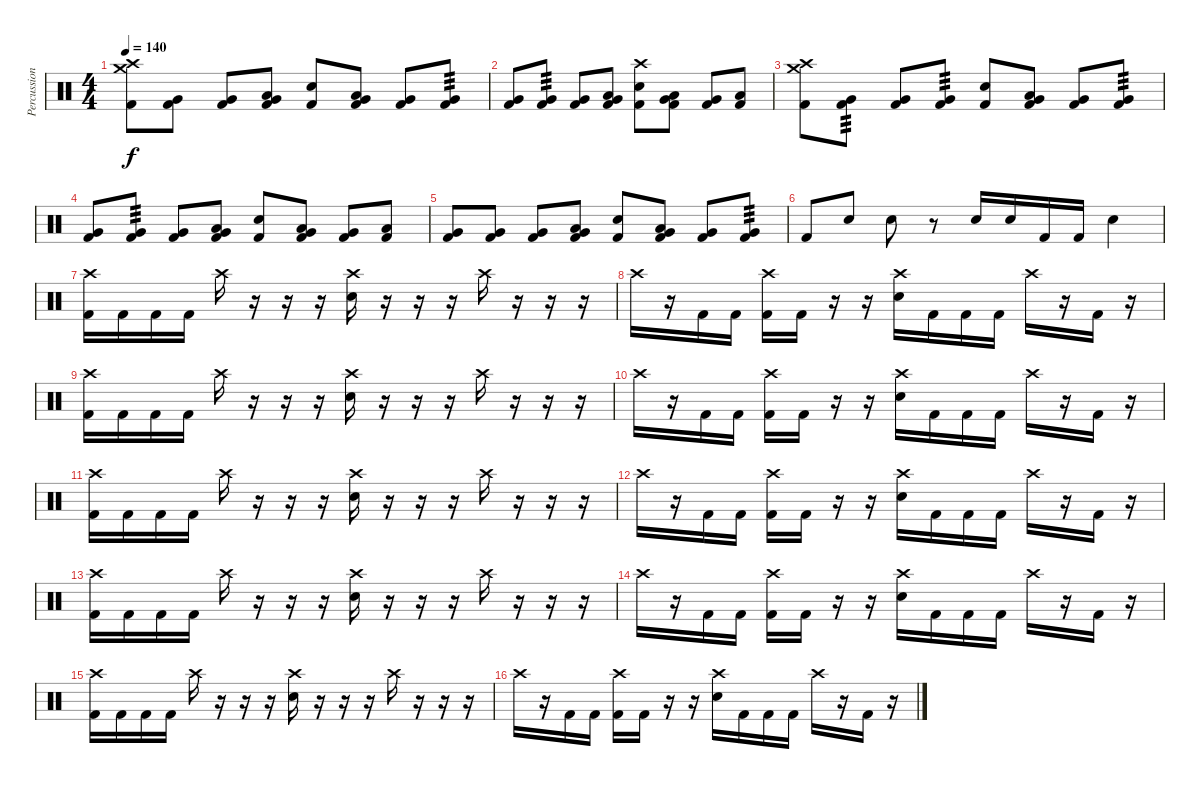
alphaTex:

\track ("Percussion" "Percussion") {instrument percussion}
\staff {score}
\articulation defaults
\ts (4 4)
\tempo 140
\clef neutral
\ks c
("Crash medium (hit)" "Crash high (hit)" "Kick (hit) 2").8{dy f} ("Very Low Tom (hit)" "Kick (hit) 2").8 ("Very Low Tom (hit)" "Kick (hit) 2").8 ("Low Tom (hit)" "Very Low Tom (hit)" "Kick (hit) 2").8 ("Electric Snare (hit)" "Kick (hit) 2").8 ("Low Tom (hit)" "Very Low Tom (hit)" "Kick (hit) 2").8 ("Very Low Tom (hit)" "Kick (hit) 2").8 ("Very Low Tom (hit)" "Kick (hit) 2").8{tp 3} |
("Very Low Tom (hit)" "Kick (hit) 2").8 ("Very Low Tom (hit)" "Kick (hit) 2").8{tp 3} ("Very Low Tom (hit)" "Kick (hit) 2").8 ("Low Tom (hit)" "Very Low Tom (hit)" "Kick (hit) 2").8 ("Crash high (hit)" "Electric Snare (hit)" "Kick (hit) 2").8 ("Low Tom (hit)" "Very Low Tom (hit)" "Kick (hit) 2").8 ("Very Low Tom (hit)" "Kick (hit) 2").8 ("Low Tom (hit)" "Kick (hit) 2").8 |
("Crash medium (hit)" "Crash high (hit)" "Kick (hit) 2").8 ("Very Low Tom (hit)" "Kick (hit) 2").8{tp 3} ("Very Low Tom (hit)" "Kick (hit) 2").8 ("Very Low Tom (hit)" "Kick (hit) 2").8{tp 3} ("Electric Snare (hit)" "Kick (hit) 2").8 ("Low Tom (hit)" "Very Low Tom (hit)" "Kick (hit) 2").8 ("Very Low Tom (hit)" "Kick (hit) 2").8 ("Very Low Tom (hit)" "Kick (hit) 2").8{tp 3} |
("Very Low Tom (hit)" "Kick (hit) 2").8 ("Very Low Tom (hit)" "Kick (hit) 2").8{tp 3} ("Very Low Tom (hit)" "Kick (hit) 2").8 ("Low Tom (hit)" "Very Low Tom (hit)" "Kick (hit) 2").8 ("Electric Snare (hit)" "Kick (hit) 2").8 ("Low Tom (hit)" "Very Low Tom (hit)" "Kick (hit) 2").8 ("Very Low Tom (hit)" "Kick (hit) 2").8 ("Low Tom (hit)" "Kick (hit) 2").8 |
("Very Low Tom (hit)" "Kick (hit) 2").8 ("Very Low Tom (hit)" "Kick (hit) 2").8 ("Very Low Tom (hit)" "Kick (hit) 2").8 ("Low Tom (hit)" "Very Low Tom (hit)" "Kick (hit) 2").8 ("Electric Snare (hit)" "Kick (hit) 2").8 ("Low Tom (hit)" "Very Low Tom (hit)" "Kick (hit) 2").8 ("Very Low Tom (hit)" "Kick (hit) 2").8 ("Very Low Tom (hit)" "Kick (hit) 2").8{tp 3} |
"Kick (hit) 2".8 "Electric Snare (hit)".8 "Electric Snare (hit)".8 r.8 "Electric Snare (hit)".16 "Electric Snare (hit)".16 "Kick (hit) 2".16 "Kick (hit) 2".16 "Electric Snare (hit)".4 |
("Crash high (hit)" "Kick (hit) 2").16 "Kick (hit) 2".16 "Kick (hit) 2".16 "Kick (hit) 2".16 "Crash high (hit)".16 r.16 r.16 r.16 ("Crash high (hit)" "Electric Snare (hit)").16 r.16 r.16 r.16 "Crash high (hit)".16 r.16 r.16 r.16 |
"Crash high (hit)".16 r.16 "Kick (hit) 2".16 "Kick (hit) 2".16 ("Crash high (hit)" "Kick (hit) 2").16 "Kick (hit) 2".16 r.16 r.16 ("Crash high (hit)" "Electric Snare (hit)").16 "Kick (hit) 2".16 "Kick (hit) 2".16 "Kick (hit) 2".16 "Crash high (hit)".16 r.16 "Kick (hit) 2".16 r.16 |
("Crash high (hit)" "Kick (hit) 2").16 "Kick (hit) 2".16 "Kick (hit) 2".16 "Kick (hit) 2".16 "Crash high (hit)".16 r.16 r.16 r.16 ("Crash high (hit)" "Electric Snare (hit)").16 r.16 r.16 r.16 "Crash high (hit)".16 r.16 r.16 r.16 |
"Crash high (hit)".16 r.16 "Kick (hit) 2".16 "Kick (hit) 2".16 ("Crash high (hit)" "Kick (hit) 2").16 "Kick (hit) 2".16 r.16 r.16 ("Crash high (hit)" "Electric Snare (hit)").16 "Kick (hit) 2".16 "Kick (hit) 2".16 "Kick (hit) 2".16 "Crash high (hit)".16 r.16 "Kick (hit) 2".16 r.16 |
("Crash high (hit)" "Kick (hit) 2").16 "Kick (hit) 2".16 "Kick (hit) 2".16 "Kick (hit) 2".16 "Crash high (hit)".16 r.16 r.16 r.16 ("Crash high (hit)" "Electric Snare (hit)").16 r.16 r.16 r.16 "Crash high (hit)".16 r.16 r.16 r.16 |
"Crash high (hit)".16 r.16 "Kick (hit) 2".16 "Kick (hit) 2".16 ("Crash high (hit)" "Kick (hit) 2").16 "Kick (hit) 2".16 r.16 r.16 ("Crash high (hit)" "Electric Snare (hit)").16 "Kick (hit) 2".16 "Kick (hit) 2".16 "Kick (hit) 2".16 "Crash high (hit)".16 r.16 "Kick (hit) 2".16 r.16 |
("Crash high (hit)" "Kick (hit) 2").16 "Kick (hit) 2".16 "Kick (hit) 2".16 "Kick (hit) 2".16 "Crash high (hit)".16 r.16 r.16 r.16 ("Crash high (hit)" "Electric Snare (hit)").16 r.16 r.16 r.16 "Crash high (hit)".16 r.16 r.16 r.16 |
"Crash high (hit)".16 r.16 "Kick (hit) 2".16 "Kick (hit) 2".16 ("Crash high (hit)" "Kick (hit) 2").16 "Kick (hit) 2".16 r.16 r.16 ("Crash high (hit)" "Electric Snare (hit)").16 "Kick (hit) 2".16 "Kick (hit) 2".16 "Kick (hit) 2".16 "Crash high (hit)".16 r.16 "Kick (hit) 2".16 r.16 |
("Crash high (hit)" "Kick (hit) 2").16 "Kick (hit) 2".16 "Kick (hit) 2".16 "Kick (hit) 2".16 "Crash high (hit)".16 r.16 r.16 r.16 ("Crash high (hit)" "Electric Snare (hit)").16 r.16 r.16 r.16 "Crash high (hit)".16 r.16 r.16 r.16 |
"Crash high (hit)".16 r.16 "Kick (hit) 2".16 "Kick (hit) 2".16 ("Crash high (hit)" "Kick (hit) 2").16 "Kick (hit) 2".16 r.16 r.16 ("Crash high (hit)" "Electric Snare (hit)").16 "Kick (hit) 2".16 "Kick (hit) 2".16 "Kick (hit) 2".16 "Crash high (hit)".16 r.16 "Kick (hit) 2".16 r.16
